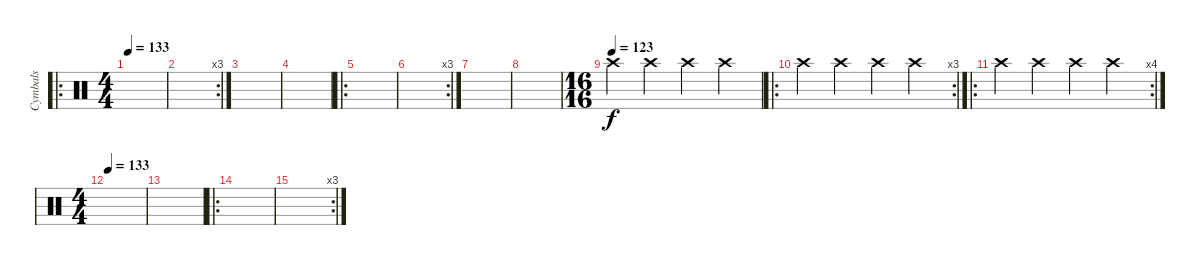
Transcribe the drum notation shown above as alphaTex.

\track ("Cymbals" "Cymbals") {instrument percussion}
\staff {score}
\articulation defaults
\ro
\ts (4 4)
\tempo 133
\clef neutral
\ks c
|
\rc 3
|
|
|
\ro
|
\rc 3
|
|
|
\ts (16 16)
\tempo (123)
"Crash high (hit)".4 "Crash high (hit)".4 "Crash high (hit)".4 "Crash high (hit)".4 |
\ro
\rc 3 "Crash high (hit)".4 "Crash high (hit)".4 "Crash high (hit)".4 "Crash high (hit)".4
|
\ro
\rc 4 "Crash high (hit)".4 "Crash high (hit)".4 "Crash high (hit)".4 "Crash high (hit)".4
|
\ts (4 4)
\tempo 133
|
|
\ro
|
\rc 3
